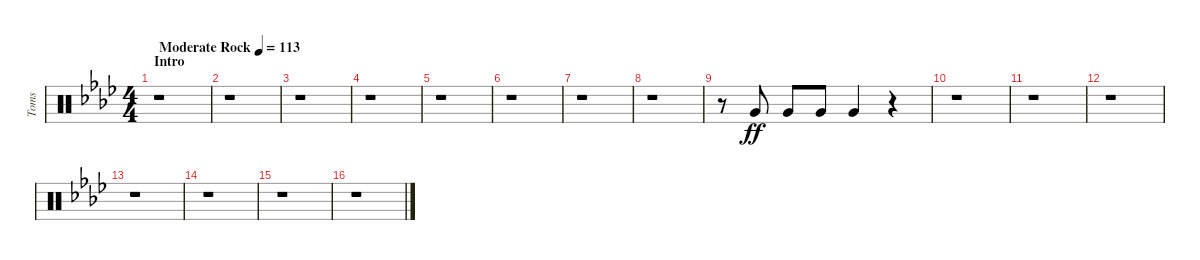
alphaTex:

\track ("Toms" "Toms") {instrument percussion}
\staff {score}
\articulation defaults
\ts (4 4)
\section ("" "Intro")
\tempo (113 "Moderate Rock")
\clef neutral
\ks fminor
r.1{dy ff} |
r.1 |
r.1 |
r.1 |
r.1 |
r.1 |
r.1 |
r.1 |
r.8{balance 6} "Very Low Tom (hit)".8 "Very Low Tom (hit)".8 "Very Low Tom (hit)".8 "Very Low Tom (hit)".4 r.4 |
r.1 |
r.1 |
r.1 |
r.1 |
r.1 |
r.1 |
r.1
